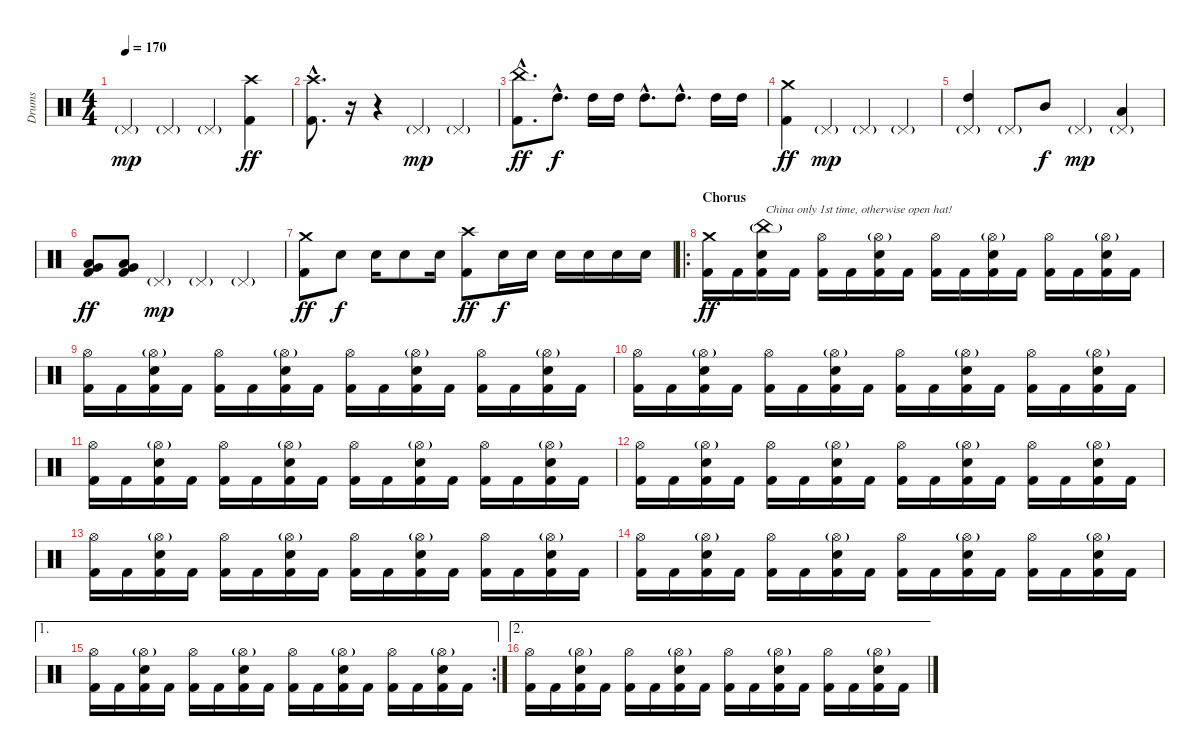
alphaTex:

\track ("Drums" "Drums") {instrument percussion}
\staff {score}
\articulation defaults
\ts (4 4)
\tempo 170
\clef neutral
\ks c "Pedal Hi-Hat (hit)"{g}.4{dy mp} "Pedal Hi-Hat (hit)"{g}.4 "Pedal Hi-Hat (hit)"{g}.4
("Crash high (hit)" "Kick (hit) 2").4{dy ff} |
("Crash high (hit)"{hac} "Kick (hit) 2"{hac}).8{d} r.16{volume 6} r.4 "Pedal Hi-Hat (hit)"{g}.4{dy mp volume 13} "Pedal Hi-Hat (hit)"{g}.4 |
("China (hit)"{hac} "Kick (hit) 2"{hac}).8{d dy ff} "High Tom (hit)"{hac}.8{d dy f} "High Tom (hit)".16 "High Tom (hit)".16 "High Tom (hit)"{hac}.8{d} "High Tom (hit)"{hac}.8{d} "High Tom (hit)".16 "High Tom (hit)".16 |
("Crash medium (hit)" "Kick (hit) 2").4{dy ff} "Pedal Hi-Hat (hit)"{g}.4{dy mp} "Pedal Hi-Hat (hit)"{g}.4 "Pedal Hi-Hat (hit)"{g}.4 |
("Pedal Hi-Hat (hit)"{g} "High Tom (hit)").4 "Pedal Hi-Hat (hit)"{g}.8 "Mid Tom (hit)".8{dy f} "Pedal Hi-Hat (hit)"{g}.4{dy mp} ("Pedal Hi-Hat (hit)"{g} "Low Tom (hit)").4 |
("Very Low Tom (hit)" "Low Floor Tom (hit)" "Kick (hit) 2").8{dy ff} ("Very Low Tom (hit)" "Low Floor Tom (hit)" "Kick (hit) 2").8 "Pedal Hi-Hat (hit)"{g}.4{dy mp} "Pedal Hi-Hat (hit)"{g}.4 "Pedal Hi-Hat (hit)"{g}.4 |
("Crash medium (hit)" "Kick (hit) 2").8{dy ff} "Electric Snare (hit)".8{dy f} "Electric Snare (hit)".16 "Electric Snare (hit)".8 "Electric Snare (hit)".16 ("Crash high (hit)" "Kick (hit) 2").8{dy ff} "Electric Snare (hit)".16{dy f} "Electric Snare (hit)".16 "Electric Snare (hit)".16 "Electric Snare (hit)".16 "Electric Snare (hit)".16 "Electric Snare (hit)".16 |
\ro
\section ("" "Chorus")
("Crash medium (hit)" "Kick (hit) 2").16{dy ff} "Kick (hit) 2".16 ("China (hit)"{g} "Electric Snare (hit)" "Kick (hit) 2").16{txt "China only 1st time, otherwise open hat!"} "Kick (hit) 2".16 ("Hi-Hat (open)" "Kick (hit) 2").16 "Kick (hit) 2".16 ("Hi-Hat (open)"{g} "Electric Snare (hit)" "Kick (hit) 2").16 "Kick (hit) 2".16 ("Hi-Hat (open)" "Kick (hit) 2").16 "Kick (hit) 2".16 ("Hi-Hat (open)"{g} "Electric Snare (hit)" "Kick (hit) 2").16 "Kick (hit) 2".16 ("Hi-Hat (open)" "Kick (hit) 2").16 "Kick (hit) 2".16 ("Hi-Hat (open)"{g} "Electric Snare (hit)" "Kick (hit) 2").16 "Kick (hit) 2".16 |
("Hi-Hat (open)" "Kick (hit) 2").16 "Kick (hit) 2".16 ("Hi-Hat (open)"{g} "Electric Snare (hit)" "Kick (hit) 2").16 "Kick (hit) 2".16 ("Hi-Hat (open)" "Kick (hit) 2").16 "Kick (hit) 2".16 ("Hi-Hat (open)"{g} "Electric Snare (hit)" "Kick (hit) 2").16 "Kick (hit) 2".16 ("Hi-Hat (open)" "Kick (hit) 2").16 "Kick (hit) 2".16 ("Hi-Hat (open)"{g} "Electric Snare (hit)" "Kick (hit) 2").16 "Kick (hit) 2".16 ("Hi-Hat (open)" "Kick (hit) 2").16 "Kick (hit) 2".16 ("Hi-Hat (open)"{g} "Electric Snare (hit)" "Kick (hit) 2").16 "Kick (hit) 2".16 |
("Hi-Hat (open)" "Kick (hit) 2").16 "Kick (hit) 2".16 ("Hi-Hat (open)"{g} "Electric Snare (hit)" "Kick (hit) 2").16 "Kick (hit) 2".16 ("Hi-Hat (open)" "Kick (hit) 2").16 "Kick (hit) 2".16 ("Hi-Hat (open)"{g} "Electric Snare (hit)" "Kick (hit) 2").16 "Kick (hit) 2".16 ("Hi-Hat (open)" "Kick (hit) 2").16 "Kick (hit) 2".16 ("Hi-Hat (open)"{g} "Electric Snare (hit)" "Kick (hit) 2").16 "Kick (hit) 2".16 ("Hi-Hat (open)" "Kick (hit) 2").16 "Kick (hit) 2".16 ("Hi-Hat (open)"{g} "Electric Snare (hit)" "Kick (hit) 2").16 "Kick (hit) 2".16 |
("Hi-Hat (open)" "Kick (hit) 2").16 "Kick (hit) 2".16 ("Hi-Hat (open)"{g} "Electric Snare (hit)" "Kick (hit) 2").16 "Kick (hit) 2".16 ("Hi-Hat (open)" "Kick (hit) 2").16 "Kick (hit) 2".16 ("Hi-Hat (open)"{g} "Electric Snare (hit)" "Kick (hit) 2").16 "Kick (hit) 2".16 ("Hi-Hat (open)" "Kick (hit) 2").16 "Kick (hit) 2".16 ("Hi-Hat (open)"{g} "Electric Snare (hit)" "Kick (hit) 2").16 "Kick (hit) 2".16 ("Hi-Hat (open)" "Kick (hit) 2").16 "Kick (hit) 2".16 ("Hi-Hat (open)"{g} "Electric Snare (hit)" "Kick (hit) 2").16 "Kick (hit) 2".16 |
("Hi-Hat (open)" "Kick (hit) 2").16 "Kick (hit) 2".16 ("Hi-Hat (open)"{g} "Electric Snare (hit)" "Kick (hit) 2").16 "Kick (hit) 2".16 ("Hi-Hat (open)" "Kick (hit) 2").16 "Kick (hit) 2".16 ("Hi-Hat (open)"{g} "Electric Snare (hit)" "Kick (hit) 2").16 "Kick (hit) 2".16 ("Hi-Hat (open)" "Kick (hit) 2").16 "Kick (hit) 2".16 ("Hi-Hat (open)"{g} "Electric Snare (hit)" "Kick (hit) 2").16 "Kick (hit) 2".16 ("Hi-Hat (open)" "Kick (hit) 2").16 "Kick (hit) 2".16 ("Hi-Hat (open)"{g} "Electric Snare (hit)" "Kick (hit) 2").16 "Kick (hit) 2".16 |
("Hi-Hat (open)" "Kick (hit) 2").16 "Kick (hit) 2".16 ("Hi-Hat (open)"{g} "Electric Snare (hit)" "Kick (hit) 2").16 "Kick (hit) 2".16 ("Hi-Hat (open)" "Kick (hit) 2").16 "Kick (hit) 2".16 ("Hi-Hat (open)"{g} "Electric Snare (hit)" "Kick (hit) 2").16 "Kick (hit) 2".16 ("Hi-Hat (open)" "Kick (hit) 2").16 "Kick (hit) 2".16 ("Hi-Hat (open)"{g} "Electric Snare (hit)" "Kick (hit) 2").16 "Kick (hit) 2".16 ("Hi-Hat (open)" "Kick (hit) 2").16 "Kick (hit) 2".16 ("Hi-Hat (open)"{g} "Electric Snare (hit)" "Kick (hit) 2").16 "Kick (hit) 2".16 |
("Hi-Hat (open)" "Kick (hit) 2").16 "Kick (hit) 2".16 ("Hi-Hat (open)"{g} "Electric Snare (hit)" "Kick (hit) 2").16 "Kick (hit) 2".16 ("Hi-Hat (open)" "Kick (hit) 2").16 "Kick (hit) 2".16 ("Hi-Hat (open)"{g} "Electric Snare (hit)" "Kick (hit) 2").16 "Kick (hit) 2".16 ("Hi-Hat (open)" "Kick (hit) 2").16 "Kick (hit) 2".16 ("Hi-Hat (open)"{g} "Electric Snare (hit)" "Kick (hit) 2").16 "Kick (hit) 2".16 ("Hi-Hat (open)" "Kick (hit) 2").16 "Kick (hit) 2".16 ("Hi-Hat (open)"{g} "Electric Snare (hit)" "Kick (hit) 2").16 "Kick (hit) 2".16 |
\ae 1
\rc 2
("Hi-Hat (open)" "Kick (hit) 2").16 "Kick (hit) 2".16 ("Hi-Hat (open)"{g} "Electric Snare (hit)" "Kick (hit) 2").16 "Kick (hit) 2".16 ("Hi-Hat (open)" "Kick (hit) 2").16 "Kick (hit) 2".16 ("Hi-Hat (open)"{g} "Electric Snare (hit)" "Kick (hit) 2").16 "Kick (hit) 2".16 ("Hi-Hat (open)" "Kick (hit) 2").16 "Kick (hit) 2".16 ("Hi-Hat (open)"{g} "Electric Snare (hit)" "Kick (hit) 2").16 "Kick (hit) 2".16 ("Hi-Hat (open)" "Kick (hit) 2").16 "Kick (hit) 2".16 ("Hi-Hat (open)"{g} "Electric Snare (hit)" "Kick (hit) 2").16 "Kick (hit) 2".16 |
\ae 2
("Hi-Hat (open)" "Kick (hit) 2").16 "Kick (hit) 2".16 ("Hi-Hat (open)"{g} "Electric Snare (hit)" "Kick (hit) 2").16 "Kick (hit) 2".16 ("Hi-Hat (open)" "Kick (hit) 2").16 "Kick (hit) 2".16 ("Hi-Hat (open)"{g} "Electric Snare (hit)" "Kick (hit) 2").16 "Kick (hit) 2".16 ("Hi-Hat (open)" "Kick (hit) 2").16 "Kick (hit) 2".16 ("Hi-Hat (open)"{g} "Electric Snare (hit)" "Kick (hit) 2").16 "Kick (hit) 2".16 ("Hi-Hat (open)" "Kick (hit) 2").16 "Kick (hit) 2".16 ("Hi-Hat (open)"{g} "Electric Snare (hit)" "Kick (hit) 2").16 "Kick (hit) 2".16
